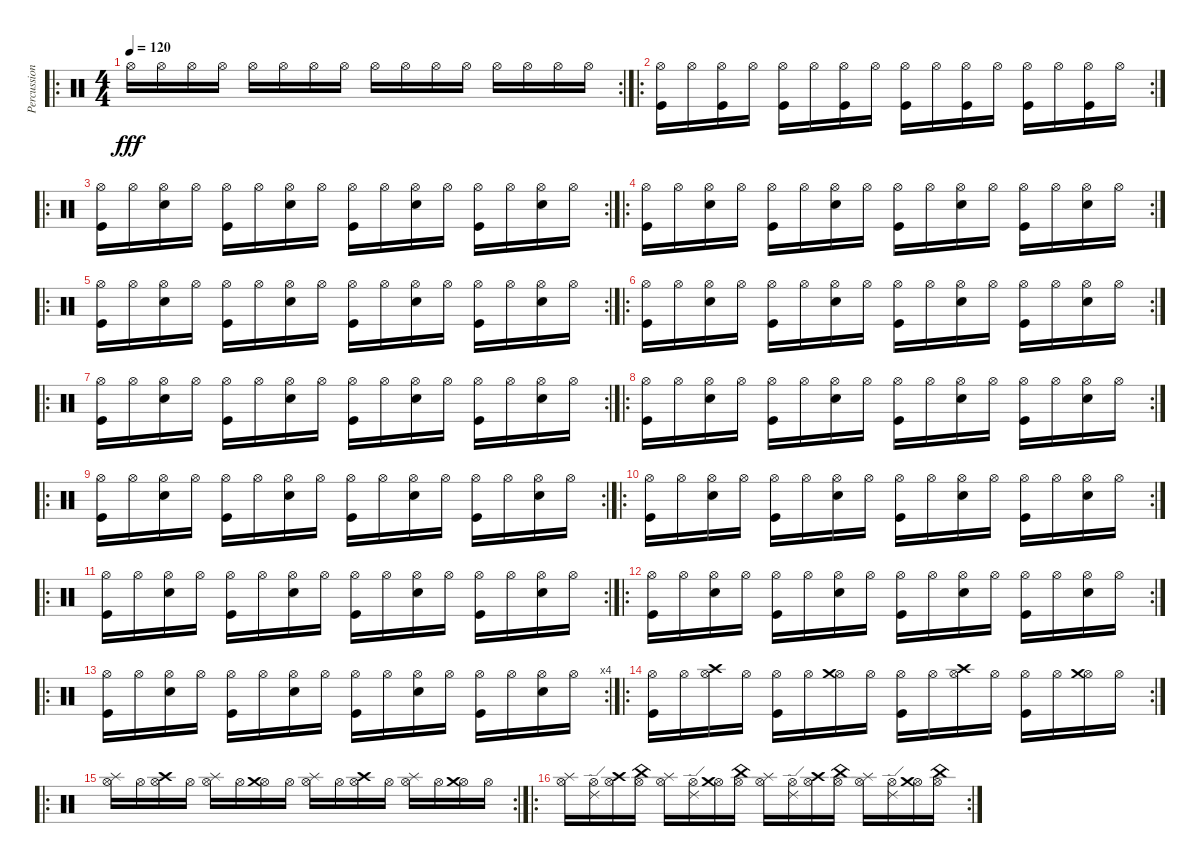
\track ("Percussion" "Percussion") {instrument percussion}
\staff {score}
\articulation defaults
\ro
\rc 2
\ts (4 4)
\tempo 120
\clef neutral
\ks c "Hi-Hat (open)".16{dy fff} "Hi-Hat (open)".16 "Hi-Hat (open)".16 "Hi-Hat (open)".16 "Hi-Hat (open)".16 "Hi-Hat (open)".16 "Hi-Hat (open)".16 "Hi-Hat (open)".16 "Hi-Hat (open)".16 "Hi-Hat (open)".16 "Hi-Hat (open)".16 "Hi-Hat (open)".16 "Hi-Hat (open)".16 "Hi-Hat (open)".16 "Hi-Hat (open)".16 "Hi-Hat (open)".16
|
\ro
\rc 2
("Hi-Hat (open)" "Kick (hit)").16 "Hi-Hat (open)".16 ("Hi-Hat (open)" "Kick (hit)").16 "Hi-Hat (open)".16 ("Hi-Hat (open)" "Kick (hit)").16 "Hi-Hat (open)".16 ("Hi-Hat (open)" "Kick (hit)").16 "Hi-Hat (open)".16 ("Hi-Hat (open)" "Kick (hit)").16 "Hi-Hat (open)".16 ("Hi-Hat (open)" "Kick (hit)").16 "Hi-Hat (open)".16 ("Hi-Hat (open)" "Kick (hit)").16 "Hi-Hat (open)".16 ("Hi-Hat (open)" "Kick (hit)").16 "Hi-Hat (open)".16 |
\ro
\rc 2
("Hi-Hat (open)" "Kick (hit)").16 "Hi-Hat (open)".16 ("Hi-Hat (open)" "Snare (hit) 2").16 "Hi-Hat (open)".16 ("Hi-Hat (open)" "Kick (hit)").16 "Hi-Hat (open)".16 ("Hi-Hat (open)" "Snare (hit) 2").16 "Hi-Hat (open)".16 ("Hi-Hat (open)" "Kick (hit)").16 "Hi-Hat (open)".16 ("Hi-Hat (open)" "Snare (hit) 2").16 "Hi-Hat (open)".16 ("Hi-Hat (open)" "Kick (hit)").16 "Hi-Hat (open)".16 ("Hi-Hat (open)" "Snare (hit) 2").16 "Hi-Hat (open)".16 |
\ro
\rc 2
("Hi-Hat (open)" "Kick (hit)").16 "Hi-Hat (open)".16 ("Hi-Hat (open)" "Snare (hit) 2").16 "Hi-Hat (open)".16 ("Hi-Hat (open)" "Kick (hit)").16 "Hi-Hat (open)".16 ("Hi-Hat (open)" "Snare (hit) 2").16 "Hi-Hat (open)".16 ("Hi-Hat (open)" "Kick (hit)").16 "Hi-Hat (open)".16 ("Hi-Hat (open)" "Snare (hit) 2").16 "Hi-Hat (open)".16 ("Hi-Hat (open)" "Kick (hit)").16 "Hi-Hat (open)".16 ("Hi-Hat (open)" "Snare (hit) 2").16 "Hi-Hat (open)".16 |
\ro
\rc 2
("Hi-Hat (open)" "Kick (hit)").16 "Hi-Hat (open)".16 ("Hi-Hat (open)" "Snare (hit) 2").16 "Hi-Hat (open)".16 ("Hi-Hat (open)" "Kick (hit)").16 "Hi-Hat (open)".16 ("Hi-Hat (open)" "Snare (hit) 2").16 "Hi-Hat (open)".16 ("Hi-Hat (open)" "Kick (hit)").16 "Hi-Hat (open)".16 ("Hi-Hat (open)" "Snare (hit) 2").16 "Hi-Hat (open)".16 ("Hi-Hat (open)" "Kick (hit)").16 "Hi-Hat (open)".16 ("Hi-Hat (open)" "Snare (hit) 2").16 "Hi-Hat (open)".16 |
\ro
\rc 2
("Hi-Hat (open)" "Kick (hit)").16 "Hi-Hat (open)".16 ("Hi-Hat (open)" "Snare (hit) 2").16 "Hi-Hat (open)".16 ("Hi-Hat (open)" "Kick (hit)").16 "Hi-Hat (open)".16 ("Hi-Hat (open)" "Snare (hit) 2").16 "Hi-Hat (open)".16 ("Hi-Hat (open)" "Kick (hit)").16 "Hi-Hat (open)".16 ("Hi-Hat (open)" "Snare (hit) 2").16 "Hi-Hat (open)".16 ("Hi-Hat (open)" "Kick (hit)").16 "Hi-Hat (open)".16 ("Hi-Hat (open)" "Snare (hit) 2").16 "Hi-Hat (open)".16 |
\ro
\rc 2
("Hi-Hat (open)" "Kick (hit)").16 "Hi-Hat (open)".16 ("Hi-Hat (open)" "Snare (hit) 2").16 "Hi-Hat (open)".16 ("Hi-Hat (open)" "Kick (hit)").16 "Hi-Hat (open)".16 ("Hi-Hat (open)" "Snare (hit) 2").16 "Hi-Hat (open)".16 ("Hi-Hat (open)" "Kick (hit)").16 "Hi-Hat (open)".16 ("Hi-Hat (open)" "Snare (hit) 2").16 "Hi-Hat (open)".16 ("Hi-Hat (open)" "Kick (hit)").16 "Hi-Hat (open)".16 ("Hi-Hat (open)" "Snare (hit) 2").16 "Hi-Hat (open)".16 |
\ro
\rc 2
("Hi-Hat (open)" "Kick (hit)").16 "Hi-Hat (open)".16 ("Hi-Hat (open)" "Snare (hit) 2").16 "Hi-Hat (open)".16 ("Hi-Hat (open)" "Kick (hit)").16 "Hi-Hat (open)".16 ("Hi-Hat (open)" "Snare (hit) 2").16 "Hi-Hat (open)".16 ("Hi-Hat (open)" "Kick (hit)").16 "Hi-Hat (open)".16 ("Hi-Hat (open)" "Snare (hit) 2").16 "Hi-Hat (open)".16 ("Hi-Hat (open)" "Kick (hit)").16 "Hi-Hat (open)".16 ("Hi-Hat (open)" "Snare (hit) 2").16 "Hi-Hat (open)".16 |
\ro
\rc 2
("Hi-Hat (open)" "Kick (hit)").16 "Hi-Hat (open)".16 ("Hi-Hat (open)" "Snare (hit) 2").16 "Hi-Hat (open)".16 ("Hi-Hat (open)" "Kick (hit)").16 "Hi-Hat (open)".16 ("Hi-Hat (open)" "Snare (hit) 2").16 "Hi-Hat (open)".16 ("Hi-Hat (open)" "Kick (hit)").16 "Hi-Hat (open)".16 ("Hi-Hat (open)" "Snare (hit) 2").16 "Hi-Hat (open)".16 ("Hi-Hat (open)" "Kick (hit)").16 "Hi-Hat (open)".16 ("Hi-Hat (open)" "Snare (hit) 2").16 "Hi-Hat (open)".16 |
\ro
\rc 2
("Hi-Hat (open)" "Kick (hit)").16 "Hi-Hat (open)".16 ("Hi-Hat (open)" "Snare (hit) 2").16 "Hi-Hat (open)".16 ("Hi-Hat (open)" "Kick (hit)").16 "Hi-Hat (open)".16 ("Hi-Hat (open)" "Snare (hit) 2").16 "Hi-Hat (open)".16 ("Hi-Hat (open)" "Kick (hit)").16 "Hi-Hat (open)".16 ("Hi-Hat (open)" "Snare (hit) 2").16 "Hi-Hat (open)".16 ("Hi-Hat (open)" "Kick (hit)").16 "Hi-Hat (open)".16 ("Hi-Hat (open)" "Snare (hit) 2").16 "Hi-Hat (open)".16 |
\ro
\rc 2
("Hi-Hat (open)" "Kick (hit)").16 "Hi-Hat (open)".16 ("Hi-Hat (open)" "Snare (hit) 2").16 "Hi-Hat (open)".16 ("Hi-Hat (open)" "Kick (hit)").16 "Hi-Hat (open)".16 ("Hi-Hat (open)" "Snare (hit) 2").16 "Hi-Hat (open)".16 ("Hi-Hat (open)" "Kick (hit)").16 "Hi-Hat (open)".16 ("Hi-Hat (open)" "Snare (hit) 2").16 "Hi-Hat (open)".16 ("Hi-Hat (open)" "Kick (hit)").16 "Hi-Hat (open)".16 ("Hi-Hat (open)" "Snare (hit) 2").16 "Hi-Hat (open)".16 |
\ro
\rc 2
("Hi-Hat (open)" "Kick (hit)").16 "Hi-Hat (open)".16 ("Hi-Hat (open)" "Snare (hit) 2").16 "Hi-Hat (open)".16 ("Hi-Hat (open)" "Kick (hit)").16 "Hi-Hat (open)".16 ("Hi-Hat (open)" "Snare (hit) 2").16 "Hi-Hat (open)".16 ("Hi-Hat (open)" "Kick (hit)").16 "Hi-Hat (open)".16 ("Hi-Hat (open)" "Snare (hit) 2").16 "Hi-Hat (open)".16 ("Hi-Hat (open)" "Kick (hit)").16 "Hi-Hat (open)".16 ("Hi-Hat (open)" "Snare (hit) 2").16 "Hi-Hat (open)".16 |
\ro
\rc 4
("Hi-Hat (open)" "Kick (hit)").16 "Hi-Hat (open)".16 ("Hi-Hat (open)" "Snare (hit) 2").16 "Hi-Hat (open)".16 ("Hi-Hat (open)" "Kick (hit)").16 "Hi-Hat (open)".16 ("Hi-Hat (open)" "Snare (hit) 2").16 "Hi-Hat (open)".16 ("Hi-Hat (open)" "Kick (hit)").16 "Hi-Hat (open)".16 ("Hi-Hat (open)" "Snare (hit) 2").16 "Hi-Hat (open)".16 ("Hi-Hat (open)" "Kick (hit)").16 "Hi-Hat (open)".16 ("Hi-Hat (open)" "Snare (hit) 2").16 "Hi-Hat (open)".16 |
\ro
\rc 2
("Hi-Hat (open)" "Kick (hit)").16 "Hi-Hat (open)".16 ("Hi-Hat (open)" "Crash high (hit)").16 "Hi-Hat (open)".16 ("Hi-Hat (open)" "Kick (hit)").16 "Hi-Hat (open)".16 ("Hi-Hat (open)" "Crash medium (hit)").16 "Hi-Hat (open)".16 ("Hi-Hat (open)" "Kick (hit)").16 "Hi-Hat (open)".16 ("Hi-Hat (open)" "Crash high (hit)").16 "Hi-Hat (open)".16 ("Hi-Hat (open)" "Kick (hit)").16 "Hi-Hat (open)".16 ("Hi-Hat (open)" "Crash medium (hit)").16 "Hi-Hat (open)".16 |
\ro
\rc 2
("Hi-Hat (open)" "Splash (hit)").16 "Hi-Hat (open)".16 ("Hi-Hat (open)" "Crash high (hit)").16 "Hi-Hat (open)".16 ("Hi-Hat (open)" "Splash (hit)").16 "Hi-Hat (open)".16 ("Hi-Hat (open)" "Crash medium (hit)").16 "Hi-Hat (open)".16 ("Hi-Hat (open)" "Splash (hit)").16 "Hi-Hat (open)".16 ("Hi-Hat (open)" "Crash high (hit)").16 "Hi-Hat (open)".16 ("Hi-Hat (open)" "Splash (hit)").16 "Hi-Hat (open)".16 ("Hi-Hat (open)" "Crash medium (hit)").16 "Hi-Hat (open)".16 |
\ro
\rc 2
("Hi-Hat (open)" "Splash (hit)").16 ("Hi-Hat (open)" "Ride (edge) 2").16 ("Hi-Hat (open)" "Crash high (hit)").16 ("Hi-Hat (open)" "China (hit)").16 ("Hi-Hat (open)" "Splash (hit)").16 ("Hi-Hat (open)" "Ride (edge) 2").16 ("Hi-Hat (open)" "Crash medium (hit)").16 ("Hi-Hat (open)" "China (hit)").16 ("Hi-Hat (open)" "Splash (hit)").16 ("Hi-Hat (open)" "Ride (edge) 2").16 ("Hi-Hat (open)" "Crash high (hit)").16 ("Hi-Hat (open)" "China (hit)").16 ("Hi-Hat (open)" "Splash (hit)").16 ("Hi-Hat (open)" "Ride (edge) 2").16 ("Hi-Hat (open)" "Crash medium (hit)").16 ("Hi-Hat (open)" "China (hit)").16
